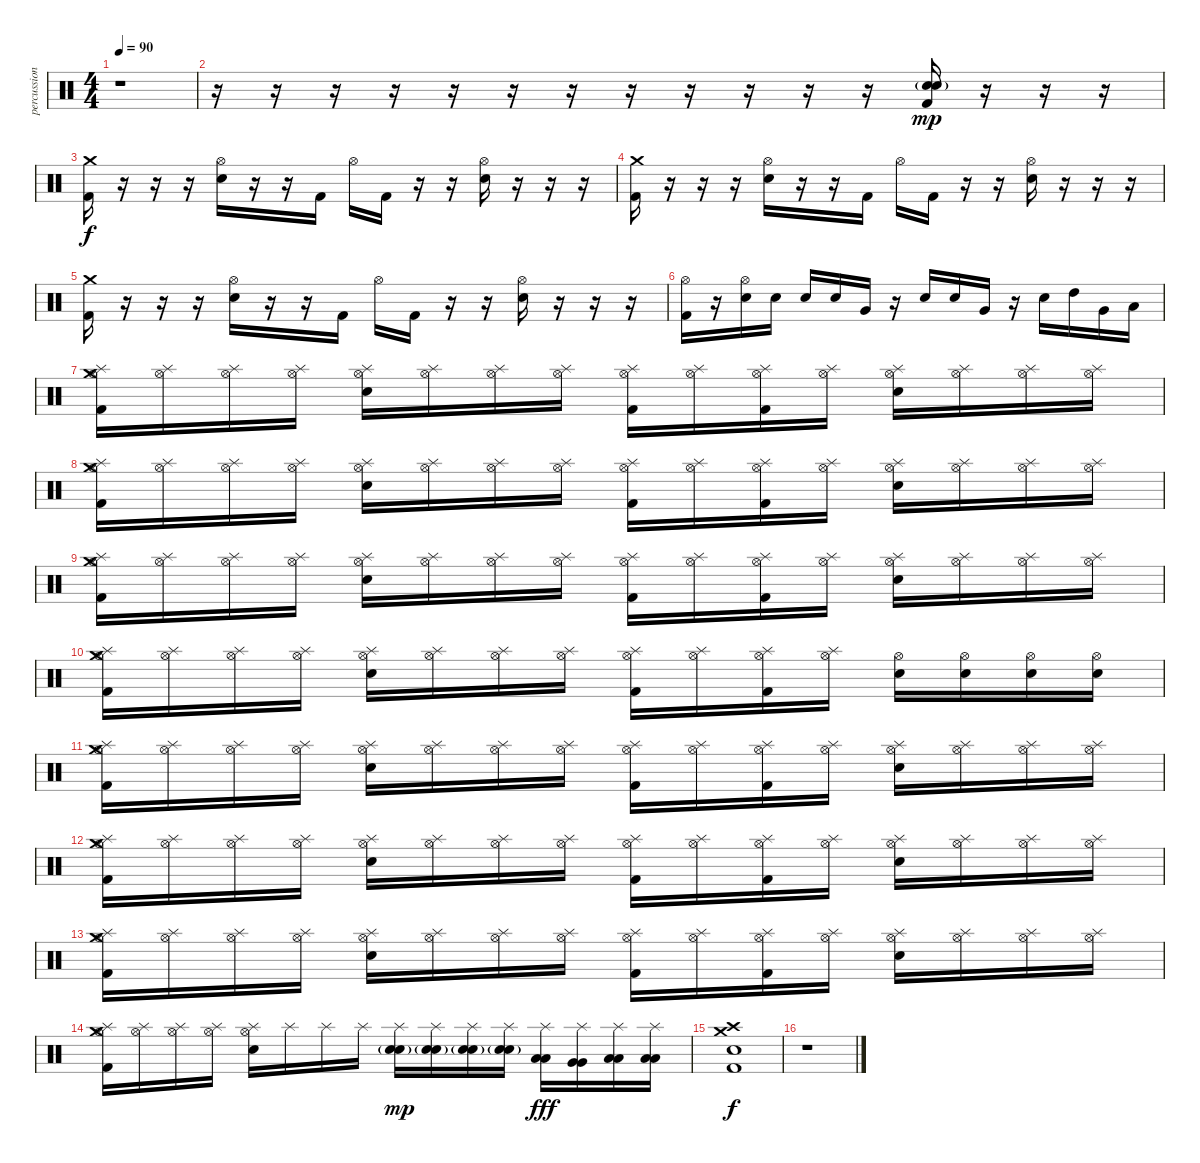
\track ("percussion - longineu" "percussion") {instrument percussion}
\staff {score}
\articulation defaults
\ts (4 4)
\tempo 90
\clef neutral
\ks c
r.1{dy f} |
r.16 r.16 r.16 r.16 r.16 r.16 r.16 r.16 r.16 r.16 r.16 r.16 ("Snare (hit) 2"{g} "Snare (hit) 2" "Kick (hit) 2").16{dy mp} r.16 r.16 r.16 |
("Crash medium (hit)" "Kick (hit) 2").16{dy f} r.16 r.16 r.16 ("Hi-Hat (open)" "Snare (hit) 2").16 r.16 r.16 "Kick (hit) 2".16 "Hi-Hat (open)".16 "Kick (hit) 2".16 r.16 r.16 ("Hi-Hat (open)" "Snare (hit) 2").16 r.16 r.16 r.16 |
("Crash medium (hit)" "Kick (hit) 2").16 r.16 r.16 r.16 ("Hi-Hat (open)" "Snare (hit) 2").16 r.16 r.16 "Kick (hit) 2".16 "Hi-Hat (open)".16 "Kick (hit) 2".16 r.16 r.16 ("Hi-Hat (open)" "Snare (hit) 2").16 r.16 r.16 r.16 |
("Crash medium (hit)" "Kick (hit) 2").16 r.16 r.16 r.16 ("Hi-Hat (open)" "Snare (hit) 2").16 r.16 r.16 "Kick (hit) 2".16 "Hi-Hat (open)".16 "Kick (hit) 2".16 r.16 r.16 ("Hi-Hat (open)" "Snare (hit) 2").16 r.16 r.16 r.16 |
("Hi-Hat (open)" "Kick (hit) 2").16 r.16 ("Hi-Hat (open)" "Electric Snare (hit)").16 "Electric Snare (hit)".16 "Electric Snare (hit)".16 "Electric Snare (hit)".16 "Very Low Tom (hit)".16 r.16 "Electric Snare (hit)".16 "Electric Snare (hit)".16 "Very Low Tom (hit)".16 r.16 "Electric Snare (hit)".16 "High Tom (hit)".16 "Very Low Tom (hit)".16 "Low Floor Tom (hit)".16 |
("Splash (hit)" "Hi-Hat (open)" "Crash medium (hit)" "Kick (hit) 2").16 ("Splash (hit)" "Hi-Hat (open)").16 ("Splash (hit)" "Hi-Hat (open)").16 ("Splash (hit)" "Hi-Hat (open)").16 ("Splash (hit)" "Hi-Hat (open)" "Electric Snare (hit)").16 ("Splash (hit)" "Hi-Hat (open)").16 ("Splash (hit)" "Hi-Hat (open)").16 ("Splash (hit)" "Hi-Hat (open)").16 ("Splash (hit)" "Hi-Hat (open)" "Kick (hit) 2").16 ("Splash (hit)" "Hi-Hat (open)").16 ("Splash (hit)" "Hi-Hat (open)" "Kick (hit) 2").16 ("Splash (hit)" "Hi-Hat (open)").16 ("Splash (hit)" "Hi-Hat (open)" "Electric Snare (hit)").16 ("Splash (hit)" "Hi-Hat (open)").16 ("Splash (hit)" "Hi-Hat (open)").16 ("Splash (hit)" "Hi-Hat (open)").16 |
("Splash (hit)" "Hi-Hat (open)" "Crash medium (hit)" "Kick (hit) 2").16 ("Splash (hit)" "Hi-Hat (open)").16 ("Splash (hit)" "Hi-Hat (open)").16 ("Splash (hit)" "Hi-Hat (open)").16 ("Splash (hit)" "Hi-Hat (open)" "Electric Snare (hit)").16 ("Splash (hit)" "Hi-Hat (open)").16 ("Splash (hit)" "Hi-Hat (open)").16 ("Splash (hit)" "Hi-Hat (open)").16 ("Splash (hit)" "Hi-Hat (open)" "Kick (hit) 2").16 ("Splash (hit)" "Hi-Hat (open)").16 ("Splash (hit)" "Hi-Hat (open)" "Kick (hit) 2").16 ("Splash (hit)" "Hi-Hat (open)").16 ("Splash (hit)" "Hi-Hat (open)" "Electric Snare (hit)").16 ("Splash (hit)" "Hi-Hat (open)").16 ("Splash (hit)" "Hi-Hat (open)").16 ("Splash (hit)" "Hi-Hat (open)").16 |
("Splash (hit)" "Hi-Hat (open)" "Crash medium (hit)" "Kick (hit) 2").16 ("Splash (hit)" "Hi-Hat (open)").16 ("Splash (hit)" "Hi-Hat (open)").16 ("Splash (hit)" "Hi-Hat (open)").16 ("Splash (hit)" "Hi-Hat (open)" "Electric Snare (hit)").16 ("Splash (hit)" "Hi-Hat (open)").16 ("Splash (hit)" "Hi-Hat (open)").16 ("Splash (hit)" "Hi-Hat (open)").16 ("Splash (hit)" "Hi-Hat (open)" "Kick (hit) 2").16 ("Splash (hit)" "Hi-Hat (open)").16 ("Splash (hit)" "Hi-Hat (open)" "Kick (hit) 2").16 ("Splash (hit)" "Hi-Hat (open)").16 ("Splash (hit)" "Hi-Hat (open)" "Electric Snare (hit)").16 ("Splash (hit)" "Hi-Hat (open)").16 ("Splash (hit)" "Hi-Hat (open)").16 ("Splash (hit)" "Hi-Hat (open)").16 |
("Splash (hit)" "Hi-Hat (open)" "Crash medium (hit)" "Kick (hit) 2").16 ("Splash (hit)" "Hi-Hat (open)").16 ("Splash (hit)" "Hi-Hat (open)").16 ("Splash (hit)" "Hi-Hat (open)").16 ("Splash (hit)" "Hi-Hat (open)" "Electric Snare (hit)").16 ("Splash (hit)" "Hi-Hat (open)").16 ("Splash (hit)" "Hi-Hat (open)").16 ("Splash (hit)" "Hi-Hat (open)").16 ("Splash (hit)" "Hi-Hat (open)" "Kick (hit) 2").16 ("Splash (hit)" "Hi-Hat (open)").16 ("Splash (hit)" "Hi-Hat (open)" "Kick (hit) 2").16 ("Splash (hit)" "Hi-Hat (open)").16 ("Hi-Hat (open)" "Electric Snare (hit)").16 ("Hi-Hat (open)" "Electric Snare (hit)").16 ("Hi-Hat (open)" "Electric Snare (hit)").16 ("Hi-Hat (open)" "Electric Snare (hit)").16 |
("Splash (hit)" "Hi-Hat (open)" "Crash medium (hit)" "Kick (hit) 2").16 ("Splash (hit)" "Hi-Hat (open)").16 ("Splash (hit)" "Hi-Hat (open)").16 ("Splash (hit)" "Hi-Hat (open)").16 ("Splash (hit)" "Hi-Hat (open)" "Electric Snare (hit)").16 ("Splash (hit)" "Hi-Hat (open)").16 ("Splash (hit)" "Hi-Hat (open)").16 ("Splash (hit)" "Hi-Hat (open)").16 ("Splash (hit)" "Hi-Hat (open)" "Kick (hit) 2").16 ("Splash (hit)" "Hi-Hat (open)").16 ("Splash (hit)" "Hi-Hat (open)" "Kick (hit) 2").16 ("Splash (hit)" "Hi-Hat (open)").16 ("Splash (hit)" "Hi-Hat (open)" "Electric Snare (hit)").16 ("Splash (hit)" "Hi-Hat (open)").16 ("Splash (hit)" "Hi-Hat (open)").16 ("Splash (hit)" "Hi-Hat (open)").16 |
("Splash (hit)" "Hi-Hat (open)" "Crash medium (hit)" "Kick (hit) 2").16 ("Splash (hit)" "Hi-Hat (open)").16 ("Splash (hit)" "Hi-Hat (open)").16 ("Splash (hit)" "Hi-Hat (open)").16 ("Splash (hit)" "Hi-Hat (open)" "Electric Snare (hit)").16 ("Splash (hit)" "Hi-Hat (open)").16 ("Splash (hit)" "Hi-Hat (open)").16 ("Splash (hit)" "Hi-Hat (open)").16 ("Splash (hit)" "Hi-Hat (open)" "Kick (hit) 2").16 ("Splash (hit)" "Hi-Hat (open)").16 ("Splash (hit)" "Hi-Hat (open)" "Kick (hit) 2").16 ("Splash (hit)" "Hi-Hat (open)").16 ("Splash (hit)" "Hi-Hat (open)" "Electric Snare (hit)").16 ("Splash (hit)" "Hi-Hat (open)").16 ("Splash (hit)" "Hi-Hat (open)").16 ("Splash (hit)" "Hi-Hat (open)").16 |
("Splash (hit)" "Hi-Hat (open)" "Crash medium (hit)" "Kick (hit) 2").16 ("Splash (hit)" "Hi-Hat (open)").16 ("Splash (hit)" "Hi-Hat (open)").16 ("Splash (hit)" "Hi-Hat (open)").16 ("Splash (hit)" "Hi-Hat (open)" "Electric Snare (hit)").16 ("Splash (hit)" "Hi-Hat (open)").16 ("Splash (hit)" "Hi-Hat (open)").16 ("Splash (hit)" "Hi-Hat (open)").16 ("Splash (hit)" "Hi-Hat (open)" "Kick (hit) 2").16 ("Splash (hit)" "Hi-Hat (open)").16 ("Splash (hit)" "Hi-Hat (open)" "Kick (hit) 2").16 ("Splash (hit)" "Hi-Hat (open)").16 ("Splash (hit)" "Hi-Hat (open)" "Electric Snare (hit)").16 ("Splash (hit)" "Hi-Hat (open)").16 ("Splash (hit)" "Hi-Hat (open)").16 ("Splash (hit)" "Hi-Hat (open)").16 |
("Splash (hit)" "Hi-Hat (open)" "Crash medium (hit)" "Kick (hit) 2").16 ("Splash (hit)" "Hi-Hat (open)").16 ("Splash (hit)" "Hi-Hat (open)").16 ("Splash (hit)" "Hi-Hat (open)").16 ("Splash (hit)" "Hi-Hat (open)" "Electric Snare (hit)").16 "Splash (hit)".16 "Splash (hit)".16 "Splash (hit)".16 ("Splash (hit)" "Snare (hit) 2" "Snare (hit) 2"{g}).16{dy mp} ("Splash (hit)" "Snare (hit) 2" "Snare (hit) 2"{g}).16 ("Splash (hit)" "Snare (hit) 2" "Snare (hit) 2"{g}).16 ("Splash (hit)" "Snare (hit) 2" "Snare (hit) 2"{g}).16 ("Splash (hit)" "Low Tom (hit)" "Low Tom (hit)").16{dy fff} ("Splash (hit)" "Very Low Tom (hit)" "Very Low Tom (hit)").16 ("Splash (hit)" "Low Floor Tom (hit)" "Low Floor Tom (hit)").16 ("Splash (hit)" "Low Floor Tom (hit)" "Low Floor Tom (hit)").16 |
("Crash high (hit)" "Crash medium (hit)" "Snare (hit) 2" "Kick (hit) 2").1{dy f} |
r.1
